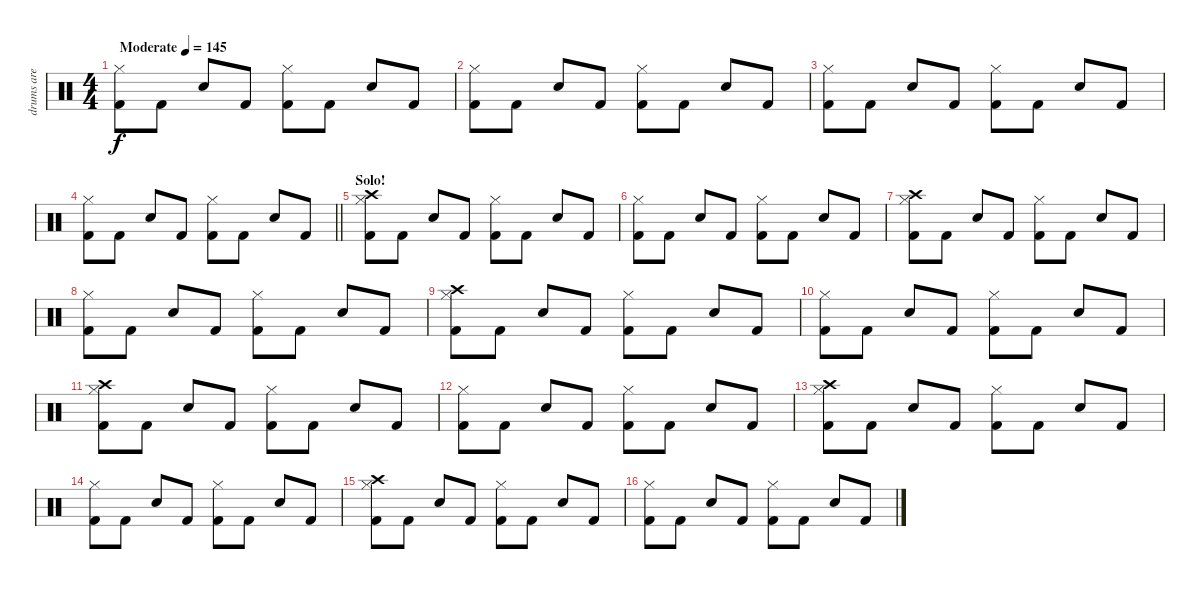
\track ("drums are cool   >.<" "drums are ") {instrument percussion}
\staff {score}
\articulation defaults
\ts (4 4)
\tempo (145 "Moderate")
\clef neutral
\ks c
("Hi-Hat (closed)" "Kick (hit) 2").8{dy f volume 7} "Kick (hit) 2".8 "Snare (hit) 2".8 "Kick (hit) 2".8 ("Hi-Hat (closed)" "Kick (hit) 2").8 "Kick (hit) 2".8 "Snare (hit) 2".8 "Kick (hit) 2".8 |
("Hi-Hat (closed)" "Kick (hit) 2").8{volume 8} "Kick (hit) 2".8 "Snare (hit) 2".8 "Kick (hit) 2".8 ("Hi-Hat (closed)" "Kick (hit) 2").8 "Kick (hit) 2".8 "Snare (hit) 2".8 "Kick (hit) 2".8 |
("Hi-Hat (closed)" "Kick (hit) 2").8{volume 9} "Kick (hit) 2".8 "Snare (hit) 2".8 "Kick (hit) 2".8 ("Hi-Hat (closed)" "Kick (hit) 2").8 "Kick (hit) 2".8 "Snare (hit) 2".8 "Kick (hit) 2".8 |
\barLineRight lightlight
("Hi-Hat (closed)" "Kick (hit) 2").8{volume 10} "Kick (hit) 2".8 "Snare (hit) 2".8 "Kick (hit) 2".8 ("Hi-Hat (closed)" "Kick (hit) 2").8 "Kick (hit) 2".8 "Snare (hit) 2".8 "Kick (hit) 2".8 |
\section ("" "Solo!")
("Crash high (hit)" "Hi-Hat (closed)" "Kick (hit) 2").8{volume 13} "Kick (hit) 2".8 "Snare (hit) 2".8 "Kick (hit) 2".8 ("Hi-Hat (closed)" "Kick (hit) 2").8 "Kick (hit) 2".8 "Snare (hit) 2".8 "Kick (hit) 2".8 |
("Hi-Hat (closed)" "Kick (hit) 2").8 "Kick (hit) 2".8 "Snare (hit) 2".8 "Kick (hit) 2".8 ("Hi-Hat (closed)" "Kick (hit) 2").8 "Kick (hit) 2".8 "Snare (hit) 2".8 "Kick (hit) 2".8 |
("Crash high (hit)" "Hi-Hat (closed)" "Kick (hit) 2").8 "Kick (hit) 2".8 "Snare (hit) 2".8 "Kick (hit) 2".8 ("Hi-Hat (closed)" "Kick (hit) 2").8 "Kick (hit) 2".8 "Snare (hit) 2".8 "Kick (hit) 2".8 |
("Hi-Hat (closed)" "Kick (hit) 2").8 "Kick (hit) 2".8 "Snare (hit) 2".8 "Kick (hit) 2".8 ("Hi-Hat (closed)" "Kick (hit) 2").8 "Kick (hit) 2".8 "Snare (hit) 2".8 "Kick (hit) 2".8 |
("Crash high (hit)" "Hi-Hat (closed)" "Kick (hit) 2").8{volume 13} "Kick (hit) 2".8 "Snare (hit) 2".8 "Kick (hit) 2".8 ("Hi-Hat (closed)" "Kick (hit) 2").8 "Kick (hit) 2".8 "Snare (hit) 2".8 "Kick (hit) 2".8 |
("Hi-Hat (closed)" "Kick (hit) 2").8 "Kick (hit) 2".8 "Snare (hit) 2".8 "Kick (hit) 2".8 ("Hi-Hat (closed)" "Kick (hit) 2").8 "Kick (hit) 2".8 "Snare (hit) 2".8 "Kick (hit) 2".8 |
("Crash high (hit)" "Hi-Hat (closed)" "Kick (hit) 2").8 "Kick (hit) 2".8 "Snare (hit) 2".8 "Kick (hit) 2".8 ("Hi-Hat (closed)" "Kick (hit) 2").8 "Kick (hit) 2".8 "Snare (hit) 2".8 "Kick (hit) 2".8 |
("Hi-Hat (closed)" "Kick (hit) 2").8 "Kick (hit) 2".8 "Snare (hit) 2".8 "Kick (hit) 2".8 ("Hi-Hat (closed)" "Kick (hit) 2").8 "Kick (hit) 2".8 "Snare (hit) 2".8 "Kick (hit) 2".8 |
("Crash high (hit)" "Hi-Hat (closed)" "Kick (hit) 2").8{volume 13} "Kick (hit) 2".8 "Snare (hit) 2".8 "Kick (hit) 2".8 ("Hi-Hat (closed)" "Kick (hit) 2").8 "Kick (hit) 2".8 "Snare (hit) 2".8 "Kick (hit) 2".8 |
("Hi-Hat (closed)" "Kick (hit) 2").8 "Kick (hit) 2".8 "Snare (hit) 2".8 "Kick (hit) 2".8 ("Hi-Hat (closed)" "Kick (hit) 2").8 "Kick (hit) 2".8 "Snare (hit) 2".8 "Kick (hit) 2".8 |
("Crash high (hit)" "Hi-Hat (closed)" "Kick (hit) 2").8 "Kick (hit) 2".8 "Snare (hit) 2".8 "Kick (hit) 2".8 ("Hi-Hat (closed)" "Kick (hit) 2").8 "Kick (hit) 2".8 "Snare (hit) 2".8 "Kick (hit) 2".8 |
("Hi-Hat (closed)" "Kick (hit) 2").8 "Kick (hit) 2".8 "Snare (hit) 2".8 "Kick (hit) 2".8 ("Hi-Hat (closed)" "Kick (hit) 2").8 "Kick (hit) 2".8 "Snare (hit) 2".8 "Kick (hit) 2".8
